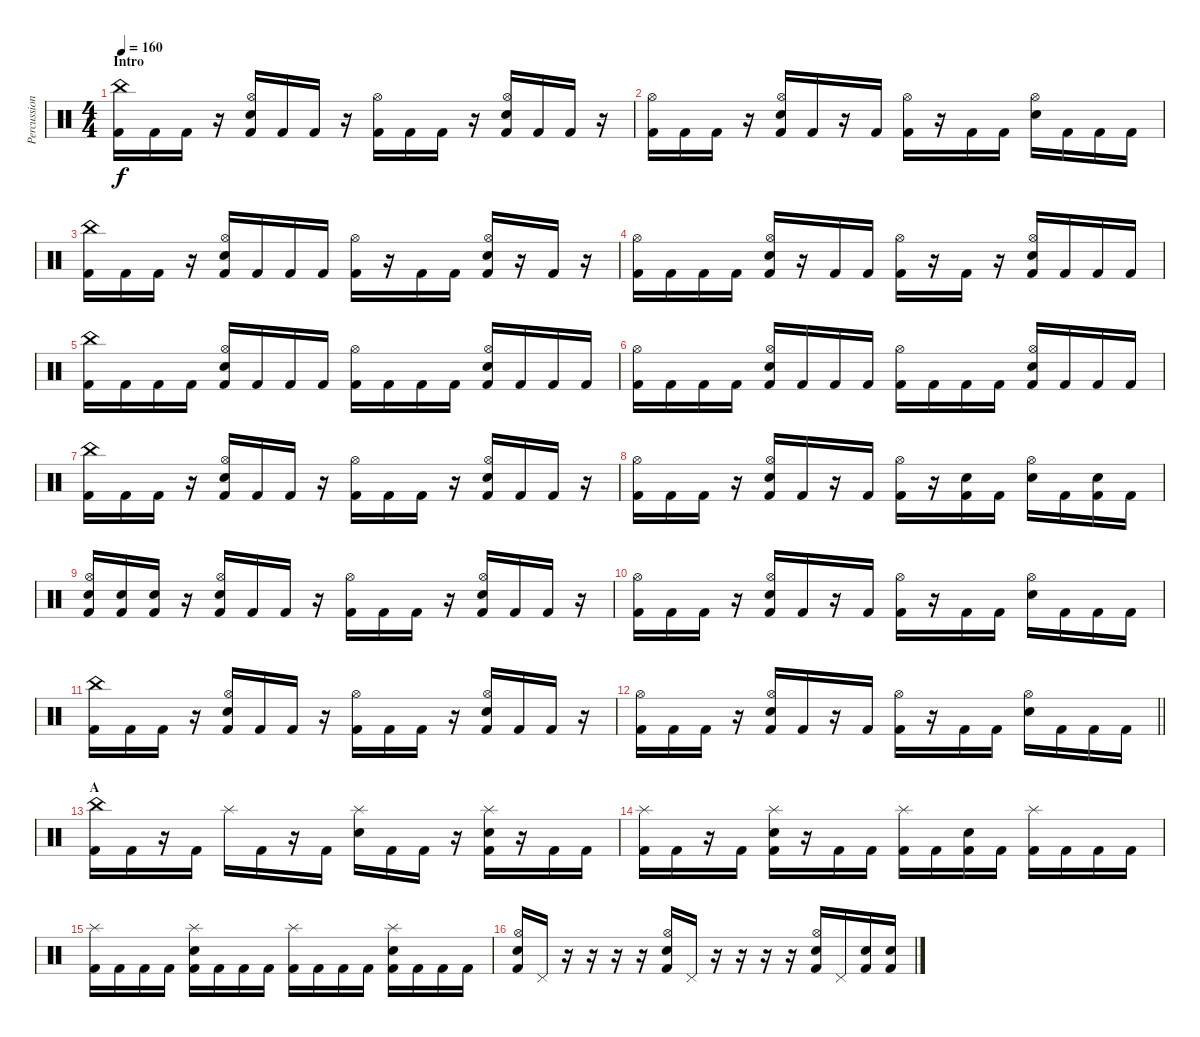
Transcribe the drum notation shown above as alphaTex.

\track ("Percussion" "Percussion") {instrument percussion}
\staff {score}
\articulation defaults
\ts (4 4)
\section ("" "Intro")
\tempo 160
\clef neutral
\ks c
("China (hit)" "Kick (hit) 2").16{dy f} "Kick (hit) 2".16 "Kick (hit) 2".16 r.16 ("Hi-Hat (open)" "Electric Snare (hit)" "Kick (hit) 2").16 "Kick (hit) 2".16 "Kick (hit) 2".16 r.16 ("Hi-Hat (open)" "Kick (hit) 2").16 "Kick (hit) 2".16 "Kick (hit) 2".16 r.16 ("Hi-Hat (open)" "Electric Snare (hit)" "Kick (hit) 2").16 "Kick (hit) 2".16 "Kick (hit) 2".16 r.16 |
("Hi-Hat (open)" "Kick (hit) 2").16 "Kick (hit) 2".16 "Kick (hit) 2".16 r.16 ("Hi-Hat (open)" "Electric Snare (hit)" "Kick (hit) 2").16 "Kick (hit) 2".16 r.16 "Kick (hit) 2".16 ("Hi-Hat (open)" "Kick (hit) 2").16 r.16 "Kick (hit) 2".16 "Kick (hit) 2".16 ("Hi-Hat (open)" "Electric Snare (hit)").16 "Kick (hit) 2".16 "Kick (hit) 2".16 "Kick (hit) 2".16 |
("China (hit)" "Kick (hit) 2").16 "Kick (hit) 2".16 "Kick (hit) 2".16 r.16 ("Hi-Hat (open)" "Electric Snare (hit)" "Kick (hit) 2").16 "Kick (hit) 2".16 "Kick (hit) 2".16 "Kick (hit) 2".16 ("Hi-Hat (open)" "Kick (hit) 2").16 r.16 "Kick (hit) 2".16 "Kick (hit) 2".16 ("Hi-Hat (open)" "Electric Snare (hit)" "Kick (hit) 2").16 r.16 "Kick (hit) 2".16 r.16 |
("Hi-Hat (open)" "Kick (hit) 2").16 "Kick (hit) 2".16 "Kick (hit) 2".16 "Kick (hit) 2".16 ("Hi-Hat (open)" "Electric Snare (hit)" "Kick (hit) 2").16 r.16 "Kick (hit) 2".16 "Kick (hit) 2".16 ("Hi-Hat (open)" "Kick (hit) 2").16 r.16 "Kick (hit) 2".16 r.16 ("Hi-Hat (open)" "Electric Snare (hit)" "Kick (hit) 2").16 "Kick (hit) 2".16 "Kick (hit) 2".16 "Kick (hit) 2".16 |
("China (hit)" "Kick (hit) 2").16 "Kick (hit) 2".16 "Kick (hit) 2".16 "Kick (hit) 2".16 ("Hi-Hat (open)" "Electric Snare (hit)" "Kick (hit) 2").16 "Kick (hit) 2".16 "Kick (hit) 2".16 "Kick (hit) 2".16 ("Hi-Hat (open)" "Kick (hit) 2").16 "Kick (hit) 2".16 "Kick (hit) 2".16 "Kick (hit) 2".16 ("Hi-Hat (open)" "Electric Snare (hit)" "Kick (hit) 2").16 "Kick (hit) 2".16 "Kick (hit) 2".16 "Kick (hit) 2".16 |
("Hi-Hat (open)" "Kick (hit) 2").16 "Kick (hit) 2".16 "Kick (hit) 2".16 "Kick (hit) 2".16 ("Hi-Hat (open)" "Electric Snare (hit)" "Kick (hit) 2").16 "Kick (hit) 2".16 "Kick (hit) 2".16 "Kick (hit) 2".16 ("Hi-Hat (open)" "Kick (hit) 2").16 "Kick (hit) 2".16 "Kick (hit) 2".16 "Kick (hit) 2".16 ("Hi-Hat (open)" "Electric Snare (hit)" "Kick (hit) 2").16 "Kick (hit) 2".16 "Kick (hit) 2".16 "Kick (hit) 2".16 |
("China (hit)" "Kick (hit) 2").16 "Kick (hit) 2".16 "Kick (hit) 2".16 r.16 ("Hi-Hat (open)" "Electric Snare (hit)" "Kick (hit) 2").16 "Kick (hit) 2".16 "Kick (hit) 2".16 r.16 ("Hi-Hat (open)" "Kick (hit) 2").16 "Kick (hit) 2".16 "Kick (hit) 2".16 r.16 ("Hi-Hat (open)" "Electric Snare (hit)" "Kick (hit) 2").16 "Kick (hit) 2".16 "Kick (hit) 2".16 r.16 |
("Hi-Hat (open)" "Kick (hit) 2").16 "Kick (hit) 2".16 "Kick (hit) 2".16 r.16 ("Hi-Hat (open)" "Electric Snare (hit)" "Kick (hit) 2").16 "Kick (hit) 2".16 r.16 "Kick (hit) 2".16 ("Hi-Hat (open)" "Kick (hit) 2").16 r.16 ("Electric Snare (hit)" "Kick (hit) 2").16 "Kick (hit) 2".16 ("Hi-Hat (open)" "Electric Snare (hit)").16 "Kick (hit) 2".16 ("Electric Snare (hit)" "Kick (hit) 2").16 "Kick (hit) 2".16 |
("Hi-Hat (open)" "Electric Snare (hit)" "Kick (hit) 2").16 ("Electric Snare (hit)" "Kick (hit) 2").16 ("Electric Snare (hit)" "Kick (hit) 2").16 r.16 ("Hi-Hat (open)" "Electric Snare (hit)" "Kick (hit) 2").16 "Kick (hit) 2".16 "Kick (hit) 2".16 r.16 ("Hi-Hat (open)" "Kick (hit) 2").16 "Kick (hit) 2".16 "Kick (hit) 2".16 r.16 ("Hi-Hat (open)" "Electric Snare (hit)" "Kick (hit) 2").16 "Kick (hit) 2".16 "Kick (hit) 2".16 r.16 |
("Hi-Hat (open)" "Kick (hit) 2").16 "Kick (hit) 2".16 "Kick (hit) 2".16 r.16 ("Hi-Hat (open)" "Electric Snare (hit)" "Kick (hit) 2").16 "Kick (hit) 2".16 r.16 "Kick (hit) 2".16 ("Hi-Hat (open)" "Kick (hit) 2").16 r.16 "Kick (hit) 2".16 "Kick (hit) 2".16 ("Hi-Hat (open)" "Electric Snare (hit)").16 "Kick (hit) 2".16 "Kick (hit) 2".16 "Kick (hit) 2".16 |
("China (hit)" "Kick (hit) 2").16 "Kick (hit) 2".16 "Kick (hit) 2".16 r.16 ("Hi-Hat (open)" "Electric Snare (hit)" "Kick (hit) 2").16 "Kick (hit) 2".16 "Kick (hit) 2".16 r.16 ("Hi-Hat (open)" "Kick (hit) 2").16 "Kick (hit) 2".16 "Kick (hit) 2".16 r.16 ("Hi-Hat (open)" "Electric Snare (hit)" "Kick (hit) 2").16 "Kick (hit) 2".16 "Kick (hit) 2".16 r.16 |
\barLineRight lightlight
("Hi-Hat (open)" "Kick (hit) 2").16 "Kick (hit) 2".16 "Kick (hit) 2".16 r.16 ("Hi-Hat (open)" "Electric Snare (hit)" "Kick (hit) 2").16 "Kick (hit) 2".16 r.16 "Kick (hit) 2".16 ("Hi-Hat (open)" "Kick (hit) 2").16 r.16 "Kick (hit) 2".16 "Kick (hit) 2".16 ("Hi-Hat (open)" "Electric Snare (hit)").16 "Kick (hit) 2".16 "Kick (hit) 2".16 "Kick (hit) 2".16 |
\section ("" "A")
("China (hit)" "Kick (hit) 2").16 "Kick (hit) 2".16 r.16 "Kick (hit) 2".16 "Splash (hit)".16 "Kick (hit) 2".16 r.16 "Kick (hit) 2".16 ("Splash (hit)" "Electric Snare (hit)").16 "Kick (hit) 2".16 "Kick (hit) 2".16 r.16 ("Splash (hit)" "Electric Snare (hit)" "Kick (hit) 2").16 r.16 "Kick (hit) 2".16 "Kick (hit) 2".16 |
("Splash (hit)" "Kick (hit) 2").16 "Kick (hit) 2".16 r.16 "Kick (hit) 2".16 ("Splash (hit)" "Electric Snare (hit)" "Kick (hit) 2").16 r.16 "Kick (hit) 2".16 "Kick (hit) 2".16 ("Splash (hit)" "Kick (hit) 2").16 "Kick (hit) 2".16 ("Electric Snare (hit)" "Kick (hit) 2").16 "Kick (hit) 2".16 ("Splash (hit)" "Kick (hit) 2").16 "Kick (hit) 2".16 "Kick (hit) 2".16 "Kick (hit) 2".16 |
("Splash (hit)" "Kick (hit) 2").16 "Kick (hit) 2".16 "Kick (hit) 2".16 "Kick (hit) 2".16 ("Splash (hit)" "Electric Snare (hit)" "Kick (hit) 2").16 "Kick (hit) 2".16 "Kick (hit) 2".16 "Kick (hit) 2".16 ("Splash (hit)" "Kick (hit) 2").16 "Kick (hit) 2".16 "Kick (hit) 2".16 "Kick (hit) 2".16 ("Splash (hit)" "Electric Snare (hit)" "Kick (hit) 2").16 "Kick (hit) 2".16 "Kick (hit) 2".16 "Kick (hit) 2".16 |
("Hi-Hat (open)" "Electric Snare (hit)" "Kick (hit) 2").16 "Pedal Hi-Hat (hit)".16 r.16 r.16 r.16 r.16 ("Hi-Hat (open)" "Electric Snare (hit)" "Kick (hit) 2").16 "Pedal Hi-Hat (hit)".16 r.16 r.16 r.16 r.16 ("Hi-Hat (open)" "Electric Snare (hit)" "Kick (hit) 2").16 "Pedal Hi-Hat (hit)".16 ("Electric Snare (hit)" "Kick (hit) 2").16 ("Electric Snare (hit)" "Kick (hit) 2").16
